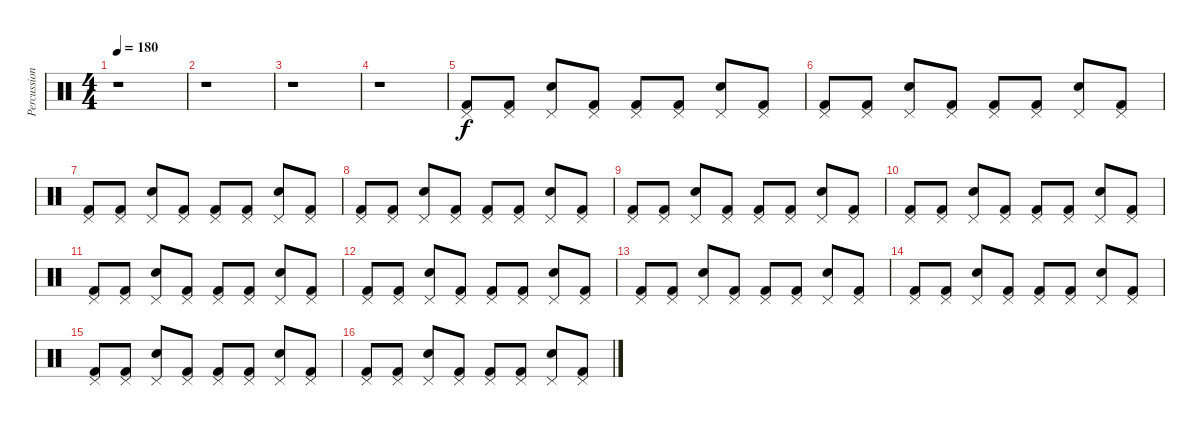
\track ("Percussion" "Percussion") {instrument percussion}
\staff {score}
\articulation defaults
\ts (4 4)
\tempo 180
\clef neutral
\ks c
r.1{dy f} |
r.1 |
r.1 |
r.1 |
("Pedal Hi-Hat (hit)" "Kick (hit) 2").8 ("Pedal Hi-Hat (hit)" "Kick (hit) 2").8 ("Pedal Hi-Hat (hit)" "Snare (hit) 2").8 ("Pedal Hi-Hat (hit)" "Kick (hit) 2").8 ("Pedal Hi-Hat (hit)" "Kick (hit) 2").8 ("Pedal Hi-Hat (hit)" "Kick (hit) 2").8 ("Pedal Hi-Hat (hit)" "Snare (hit) 2").8 ("Pedal Hi-Hat (hit)" "Kick (hit) 2").8 |
("Pedal Hi-Hat (hit)" "Kick (hit) 2").8 ("Pedal Hi-Hat (hit)" "Kick (hit) 2").8 ("Pedal Hi-Hat (hit)" "Snare (hit) 2").8 ("Pedal Hi-Hat (hit)" "Kick (hit) 2").8 ("Pedal Hi-Hat (hit)" "Kick (hit) 2").8 ("Pedal Hi-Hat (hit)" "Kick (hit) 2").8 ("Pedal Hi-Hat (hit)" "Snare (hit) 2").8 ("Pedal Hi-Hat (hit)" "Kick (hit) 2").8 |
("Pedal Hi-Hat (hit)" "Kick (hit) 2").8 ("Pedal Hi-Hat (hit)" "Kick (hit) 2").8 ("Pedal Hi-Hat (hit)" "Snare (hit) 2").8 ("Pedal Hi-Hat (hit)" "Kick (hit) 2").8 ("Pedal Hi-Hat (hit)" "Kick (hit) 2").8 ("Pedal Hi-Hat (hit)" "Kick (hit) 2").8 ("Pedal Hi-Hat (hit)" "Snare (hit) 2").8 ("Pedal Hi-Hat (hit)" "Kick (hit) 2").8 |
("Pedal Hi-Hat (hit)" "Kick (hit) 2").8 ("Pedal Hi-Hat (hit)" "Kick (hit) 2").8 ("Pedal Hi-Hat (hit)" "Snare (hit) 2").8 ("Pedal Hi-Hat (hit)" "Kick (hit) 2").8 ("Pedal Hi-Hat (hit)" "Kick (hit) 2").8 ("Pedal Hi-Hat (hit)" "Kick (hit) 2").8 ("Pedal Hi-Hat (hit)" "Snare (hit) 2").8 ("Pedal Hi-Hat (hit)" "Kick (hit) 2").8 |
("Pedal Hi-Hat (hit)" "Kick (hit) 2").8 ("Pedal Hi-Hat (hit)" "Kick (hit) 2").8 ("Pedal Hi-Hat (hit)" "Snare (hit) 2").8 ("Pedal Hi-Hat (hit)" "Kick (hit) 2").8 ("Pedal Hi-Hat (hit)" "Kick (hit) 2").8 ("Pedal Hi-Hat (hit)" "Kick (hit) 2").8 ("Pedal Hi-Hat (hit)" "Snare (hit) 2").8 ("Pedal Hi-Hat (hit)" "Kick (hit) 2").8 |
("Pedal Hi-Hat (hit)" "Kick (hit) 2").8 ("Pedal Hi-Hat (hit)" "Kick (hit) 2").8 ("Pedal Hi-Hat (hit)" "Snare (hit) 2").8 ("Pedal Hi-Hat (hit)" "Kick (hit) 2").8 ("Pedal Hi-Hat (hit)" "Kick (hit) 2").8 ("Pedal Hi-Hat (hit)" "Kick (hit) 2").8 ("Pedal Hi-Hat (hit)" "Snare (hit) 2").8 ("Pedal Hi-Hat (hit)" "Kick (hit) 2").8 |
("Pedal Hi-Hat (hit)" "Kick (hit) 2").8 ("Pedal Hi-Hat (hit)" "Kick (hit) 2").8 ("Pedal Hi-Hat (hit)" "Snare (hit) 2").8 ("Pedal Hi-Hat (hit)" "Kick (hit) 2").8 ("Pedal Hi-Hat (hit)" "Kick (hit) 2").8 ("Pedal Hi-Hat (hit)" "Kick (hit) 2").8 ("Pedal Hi-Hat (hit)" "Snare (hit) 2").8 ("Pedal Hi-Hat (hit)" "Kick (hit) 2").8 |
("Pedal Hi-Hat (hit)" "Kick (hit) 2").8 ("Pedal Hi-Hat (hit)" "Kick (hit) 2").8 ("Pedal Hi-Hat (hit)" "Snare (hit) 2").8 ("Pedal Hi-Hat (hit)" "Kick (hit) 2").8 ("Pedal Hi-Hat (hit)" "Kick (hit) 2").8 ("Pedal Hi-Hat (hit)" "Kick (hit) 2").8 ("Pedal Hi-Hat (hit)" "Snare (hit) 2").8 ("Pedal Hi-Hat (hit)" "Kick (hit) 2").8 |
("Pedal Hi-Hat (hit)" "Kick (hit) 2").8 ("Pedal Hi-Hat (hit)" "Kick (hit) 2").8 ("Pedal Hi-Hat (hit)" "Snare (hit) 2").8 ("Pedal Hi-Hat (hit)" "Kick (hit) 2").8 ("Pedal Hi-Hat (hit)" "Kick (hit) 2").8 ("Pedal Hi-Hat (hit)" "Kick (hit) 2").8 ("Pedal Hi-Hat (hit)" "Snare (hit) 2").8 ("Pedal Hi-Hat (hit)" "Kick (hit) 2").8 |
("Pedal Hi-Hat (hit)" "Kick (hit) 2").8 ("Pedal Hi-Hat (hit)" "Kick (hit) 2").8 ("Pedal Hi-Hat (hit)" "Snare (hit) 2").8 ("Pedal Hi-Hat (hit)" "Kick (hit) 2").8 ("Pedal Hi-Hat (hit)" "Kick (hit) 2").8 ("Pedal Hi-Hat (hit)" "Kick (hit) 2").8 ("Pedal Hi-Hat (hit)" "Snare (hit) 2").8 ("Pedal Hi-Hat (hit)" "Kick (hit) 2").8 |
("Pedal Hi-Hat (hit)" "Kick (hit) 2").8 ("Pedal Hi-Hat (hit)" "Kick (hit) 2").8 ("Pedal Hi-Hat (hit)" "Snare (hit) 2").8 ("Pedal Hi-Hat (hit)" "Kick (hit) 2").8 ("Pedal Hi-Hat (hit)" "Kick (hit) 2").8 ("Pedal Hi-Hat (hit)" "Kick (hit) 2").8 ("Pedal Hi-Hat (hit)" "Snare (hit) 2").8 ("Pedal Hi-Hat (hit)" "Kick (hit) 2").8 |
("Pedal Hi-Hat (hit)" "Kick (hit) 2").8 ("Pedal Hi-Hat (hit)" "Kick (hit) 2").8 ("Pedal Hi-Hat (hit)" "Snare (hit) 2").8 ("Pedal Hi-Hat (hit)" "Kick (hit) 2").8 ("Pedal Hi-Hat (hit)" "Kick (hit) 2").8 ("Pedal Hi-Hat (hit)" "Kick (hit) 2").8 ("Pedal Hi-Hat (hit)" "Snare (hit) 2").8 ("Pedal Hi-Hat (hit)" "Kick (hit) 2").8
